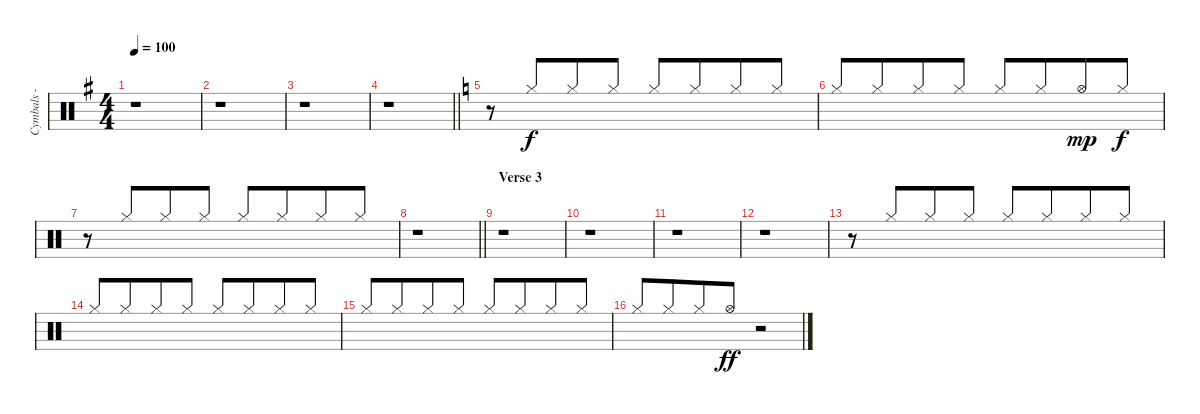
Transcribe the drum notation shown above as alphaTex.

\track ("Cymbals - Hi-Hat" "Cymbals - ") {instrument percussion}
\staff {score}
\articulation defaults
\ts (4 4)
\tempo 100
\clef neutral
\ks eminor
r.1{dy f} |
r.1 |
r.1 |
\barLineRight lightlight
r.1 |
\ks c
r.8 "Hi-Hat (closed)".8{beam Up beam merge} "Hi-Hat (closed)".8{beam Up} "Hi-Hat (closed)".8{beam Up} "Hi-Hat (closed)".8{beam Up} "Hi-Hat (closed)".8{beam Up beam merge} "Hi-Hat (closed)".8{beam Up} "Hi-Hat (closed)".8{beam Up} |
"Hi-Hat (closed)".8{beam Up} "Hi-Hat (closed)".8{beam Up beam merge} "Hi-Hat (closed)".8{beam Up} "Hi-Hat (closed)".8{beam Up} "Hi-Hat (closed)".8{beam Up} "Hi-Hat (closed)".8{beam Up beam merge} "Hi-Hat (open)".8{dy mp beam Up} "Hi-Hat (closed)".8{dy f beam Up} |
r.8 "Hi-Hat (closed)".8{beam Up beam merge} "Hi-Hat (closed)".8{beam Up} "Hi-Hat (closed)".8{beam Up} "Hi-Hat (closed)".8{beam Up} "Hi-Hat (closed)".8{beam Up beam merge} "Hi-Hat (closed)".8{beam Up} "Hi-Hat (closed)".8{beam Up} |
\barLineRight lightlight
r.1 |
\section ("" "Verse 3")
\ks aminor
r.1 |
r.1 |
r.1 |
r.1 |
r.8 "Hi-Hat (closed)".8{beam Up beam merge} "Hi-Hat (closed)".8{beam Up} "Hi-Hat (closed)".8{beam Up} "Hi-Hat (closed)".8{beam Up} "Hi-Hat (closed)".8{beam Up beam merge} "Hi-Hat (closed)".8{beam Up} "Hi-Hat (closed)".8{beam Up} |
"Hi-Hat (closed)".8{beam Up} "Hi-Hat (closed)".8{beam Up beam merge} "Hi-Hat (closed)".8{beam Up} "Hi-Hat (closed)".8{beam Up} "Hi-Hat (closed)".8{beam Up} "Hi-Hat (closed)".8{beam Up beam merge} "Hi-Hat (closed)".8{beam Up} "Hi-Hat (closed)".8{beam Up} |
"Hi-Hat (closed)".8{beam Up} "Hi-Hat (closed)".8{beam Up beam merge} "Hi-Hat (closed)".8{beam Up} "Hi-Hat (closed)".8{beam Up} "Hi-Hat (closed)".8{beam Up} "Hi-Hat (closed)".8{beam Up beam merge} "Hi-Hat (closed)".8{beam Up} "Hi-Hat (closed)".8{beam Up} |
"Hi-Hat (closed)".8{beam Up} "Hi-Hat (closed)".8{beam Up beam merge} "Hi-Hat (closed)".8{beam Up} "Hi-Hat (open)".8{dy ff beam Up} r.2
